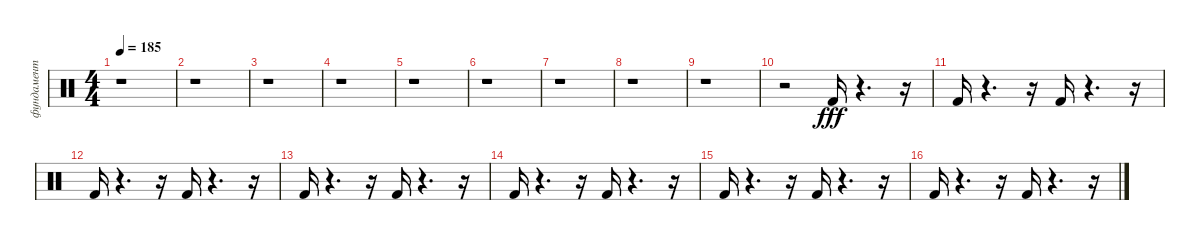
\track ("фундамент" "фундамент") {instrument percussion}
\staff {score}
\articulation defaults
\ts (4 4)
\tempo 185
\clef neutral
\ks c
r.1{dy fff} |
r.1 |
r.1 |
r.1 |
r.1 |
r.1 |
r.1 |
r.1 |
r.1 |
r.2 "Kick (hit) 2".16{balance 9} r.4{d} r.16 |
"Kick (hit) 2".16{balance 8} r.4{d} r.16 "Kick (hit) 2".16{balance 8} r.4{d} r.16 |
"Kick (hit) 2".16 r.4{d} r.16 "Kick (hit) 2".16 r.4{d} r.16 |
"Kick (hit) 2".16 r.4{d} r.16 "Kick (hit) 2".16 r.4{d} r.16 |
"Kick (hit) 2".16 r.4{d} r.16 "Kick (hit) 2".16 r.4{d} r.16 |
"Kick (hit) 2".16 r.4{d} r.16 "Kick (hit) 2".16 r.4{d} r.16 |
"Kick (hit) 2".16 r.4{d} r.16 "Kick (hit) 2".16 r.4{d} r.16
